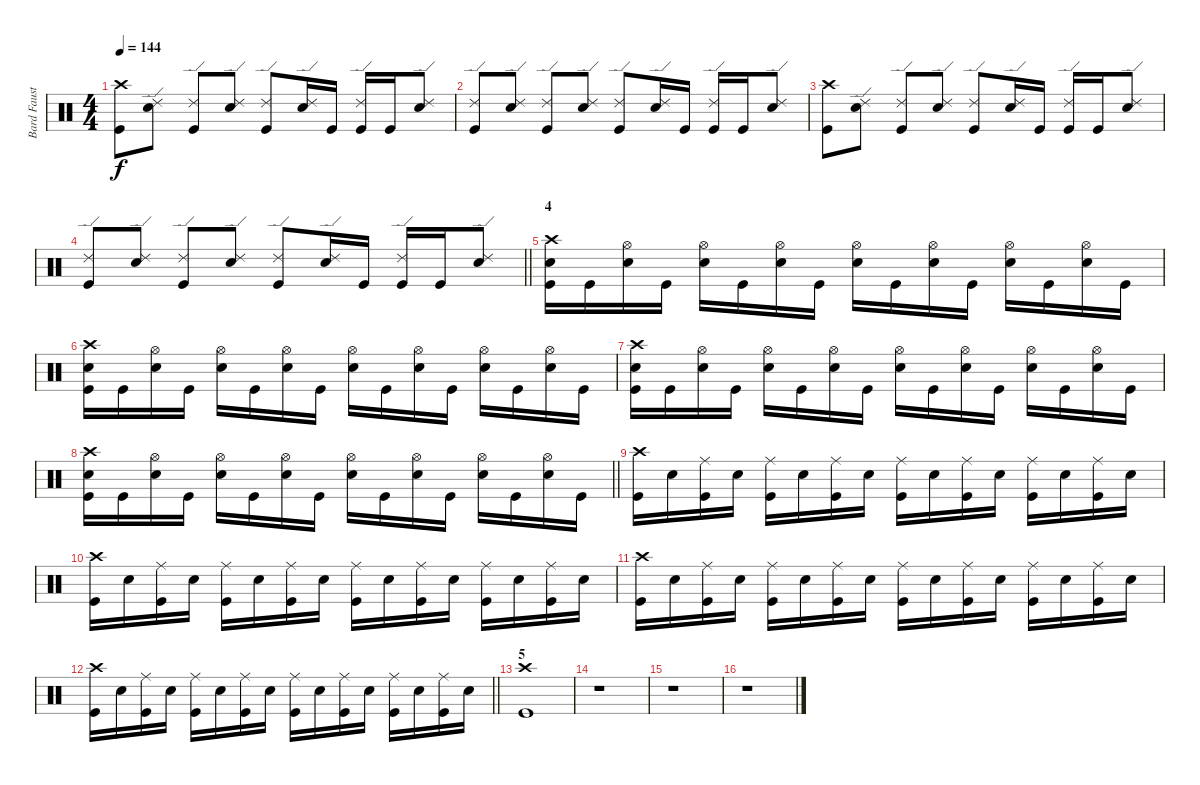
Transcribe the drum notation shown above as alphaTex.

\track ("Bard Faust" "Bard Faust") {instrument percussion}
\staff {score}
\articulation defaults
\ts (4 4)
\section ("" "")
\tempo 144
\clef neutral
\ks c
("Crash high (hit)" "Kick (hit)").8{dy f} ("Ride (edge) 2" "Snare (hit) 2").8 ("Ride (edge) 2" "Kick (hit)").8 ("Ride (edge) 2" "Snare (hit) 2").8 ("Ride (edge) 2" "Kick (hit)").8 ("Ride (edge) 2" "Snare (hit) 2").16 "Kick (hit)".16 ("Ride (edge) 2" "Kick (hit)").16 "Kick (hit)".16 ("Ride (edge) 2" "Snare (hit) 2").8 |
("Ride (edge) 2" "Kick (hit)").8 ("Ride (edge) 2" "Snare (hit) 2").8 ("Ride (edge) 2" "Kick (hit)").8 ("Ride (edge) 2" "Snare (hit) 2").8 ("Ride (edge) 2" "Kick (hit)").8 ("Ride (edge) 2" "Snare (hit) 2").16 "Kick (hit)".16 ("Ride (edge) 2" "Kick (hit)").16 "Kick (hit)".16 ("Ride (edge) 2" "Snare (hit) 2").8 |
("Crash high (hit)" "Kick (hit)").8 ("Ride (edge) 2" "Snare (hit) 2").8 ("Ride (edge) 2" "Kick (hit)").8 ("Ride (edge) 2" "Snare (hit) 2").8 ("Ride (edge) 2" "Kick (hit)").8 ("Ride (edge) 2" "Snare (hit) 2").16 "Kick (hit)".16 ("Ride (edge) 2" "Kick (hit)").16 "Kick (hit)".16 ("Ride (edge) 2" "Snare (hit) 2").8 |
\barLineRight lightlight
("Ride (edge) 2" "Kick (hit)").8 ("Ride (edge) 2" "Snare (hit) 2").8 ("Ride (edge) 2" "Kick (hit)").8 ("Ride (edge) 2" "Snare (hit) 2").8 ("Ride (edge) 2" "Kick (hit)").8 ("Ride (edge) 2" "Snare (hit) 2").16 "Kick (hit)".16 ("Ride (edge) 2" "Kick (hit)").16 "Kick (hit)".16 ("Ride (edge) 2" "Snare (hit) 2").8 |
\section ("" "4")
("Crash high (hit)" "Snare (hit) 2" "Kick (hit)").16 "Kick (hit)".16 ("Hi-Hat (open)" "Snare (hit) 2").16 "Kick (hit)".16 ("Hi-Hat (open)" "Snare (hit) 2").16 "Kick (hit)".16 ("Hi-Hat (open)" "Snare (hit) 2").16 "Kick (hit)".16 ("Hi-Hat (open)" "Snare (hit) 2").16 "Kick (hit)".16 ("Hi-Hat (open)" "Snare (hit) 2").16 "Kick (hit)".16 ("Hi-Hat (open)" "Snare (hit) 2").16 "Kick (hit)".16 ("Hi-Hat (open)" "Snare (hit) 2").16 "Kick (hit)".16 |
("Crash high (hit)" "Snare (hit) 2" "Kick (hit)").16 "Kick (hit)".16 ("Hi-Hat (open)" "Snare (hit) 2").16 "Kick (hit)".16 ("Hi-Hat (open)" "Snare (hit) 2").16 "Kick (hit)".16 ("Hi-Hat (open)" "Snare (hit) 2").16 "Kick (hit)".16 ("Hi-Hat (open)" "Snare (hit) 2").16 "Kick (hit)".16 ("Hi-Hat (open)" "Snare (hit) 2").16 "Kick (hit)".16 ("Hi-Hat (open)" "Snare (hit) 2").16 "Kick (hit)".16 ("Hi-Hat (open)" "Snare (hit) 2").16 "Kick (hit)".16 |
("Crash high (hit)" "Snare (hit) 2" "Kick (hit)").16 "Kick (hit)".16 ("Hi-Hat (open)" "Snare (hit) 2").16 "Kick (hit)".16 ("Hi-Hat (open)" "Snare (hit) 2").16 "Kick (hit)".16 ("Hi-Hat (open)" "Snare (hit) 2").16 "Kick (hit)".16 ("Hi-Hat (open)" "Snare (hit) 2").16 "Kick (hit)".16 ("Hi-Hat (open)" "Snare (hit) 2").16 "Kick (hit)".16 ("Hi-Hat (open)" "Snare (hit) 2").16 "Kick (hit)".16 ("Hi-Hat (open)" "Snare (hit) 2").16 "Kick (hit)".16 |
\barLineRight lightlight
("Crash high (hit)" "Snare (hit) 2" "Kick (hit)").16 "Kick (hit)".16 ("Hi-Hat (open)" "Snare (hit) 2").16 "Kick (hit)".16 ("Hi-Hat (open)" "Snare (hit) 2").16 "Kick (hit)".16 ("Hi-Hat (open)" "Snare (hit) 2").16 "Kick (hit)".16 ("Hi-Hat (open)" "Snare (hit) 2").16 "Kick (hit)".16 ("Hi-Hat (open)" "Snare (hit) 2").16 "Kick (hit)".16 ("Hi-Hat (open)" "Snare (hit) 2").16 "Kick (hit)".16 ("Hi-Hat (open)" "Snare (hit) 2").16 "Kick (hit)".16 |
\section ("" "")
("Crash high (hit)" "Kick (hit)").16 "Snare (hit) 2".16 ("Ride (middle)" "Kick (hit)").16 "Snare (hit) 2".16 ("Ride (middle)" "Kick (hit)").16 "Snare (hit) 2".16 ("Ride (middle)" "Kick (hit)").16 "Snare (hit) 2".16 ("Ride (middle)" "Kick (hit)").16 "Snare (hit) 2".16 ("Ride (middle)" "Kick (hit)").16 "Snare (hit) 2".16 ("Ride (middle)" "Kick (hit)").16 "Snare (hit) 2".16 ("Ride (middle)" "Kick (hit)").16 "Snare (hit) 2".16 |
("Crash high (hit)" "Kick (hit)").16 "Snare (hit) 2".16 ("Ride (middle)" "Kick (hit)").16 "Snare (hit) 2".16 ("Ride (middle)" "Kick (hit)").16 "Snare (hit) 2".16 ("Ride (middle)" "Kick (hit)").16 "Snare (hit) 2".16 ("Ride (middle)" "Kick (hit)").16 "Snare (hit) 2".16 ("Ride (middle)" "Kick (hit)").16 "Snare (hit) 2".16 ("Ride (middle)" "Kick (hit)").16 "Snare (hit) 2".16 ("Ride (middle)" "Kick (hit)").16 "Snare (hit) 2".16 |
("Crash high (hit)" "Kick (hit)").16 "Snare (hit) 2".16 ("Ride (middle)" "Kick (hit)").16 "Snare (hit) 2".16 ("Ride (middle)" "Kick (hit)").16 "Snare (hit) 2".16 ("Ride (middle)" "Kick (hit)").16 "Snare (hit) 2".16 ("Ride (middle)" "Kick (hit)").16 "Snare (hit) 2".16 ("Ride (middle)" "Kick (hit)").16 "Snare (hit) 2".16 ("Ride (middle)" "Kick (hit)").16 "Snare (hit) 2".16 ("Ride (middle)" "Kick (hit)").16 "Snare (hit) 2".16 |
\barLineRight lightlight
("Crash high (hit)" "Kick (hit)").16 "Snare (hit) 2".16 ("Ride (middle)" "Kick (hit)").16 "Snare (hit) 2".16 ("Ride (middle)" "Kick (hit)").16 "Snare (hit) 2".16 ("Ride (middle)" "Kick (hit)").16 "Snare (hit) 2".16 ("Ride (middle)" "Kick (hit)").16 "Snare (hit) 2".16 ("Ride (middle)" "Kick (hit)").16 "Snare (hit) 2".16 ("Ride (middle)" "Kick (hit)").16 "Snare (hit) 2".16 ("Ride (middle)" "Kick (hit)").16 "Snare (hit) 2".16 |
\section ("" "5")
("Crash high (hit)" "Kick (hit)").1 |
r.1 |
r.1 |
r.1
